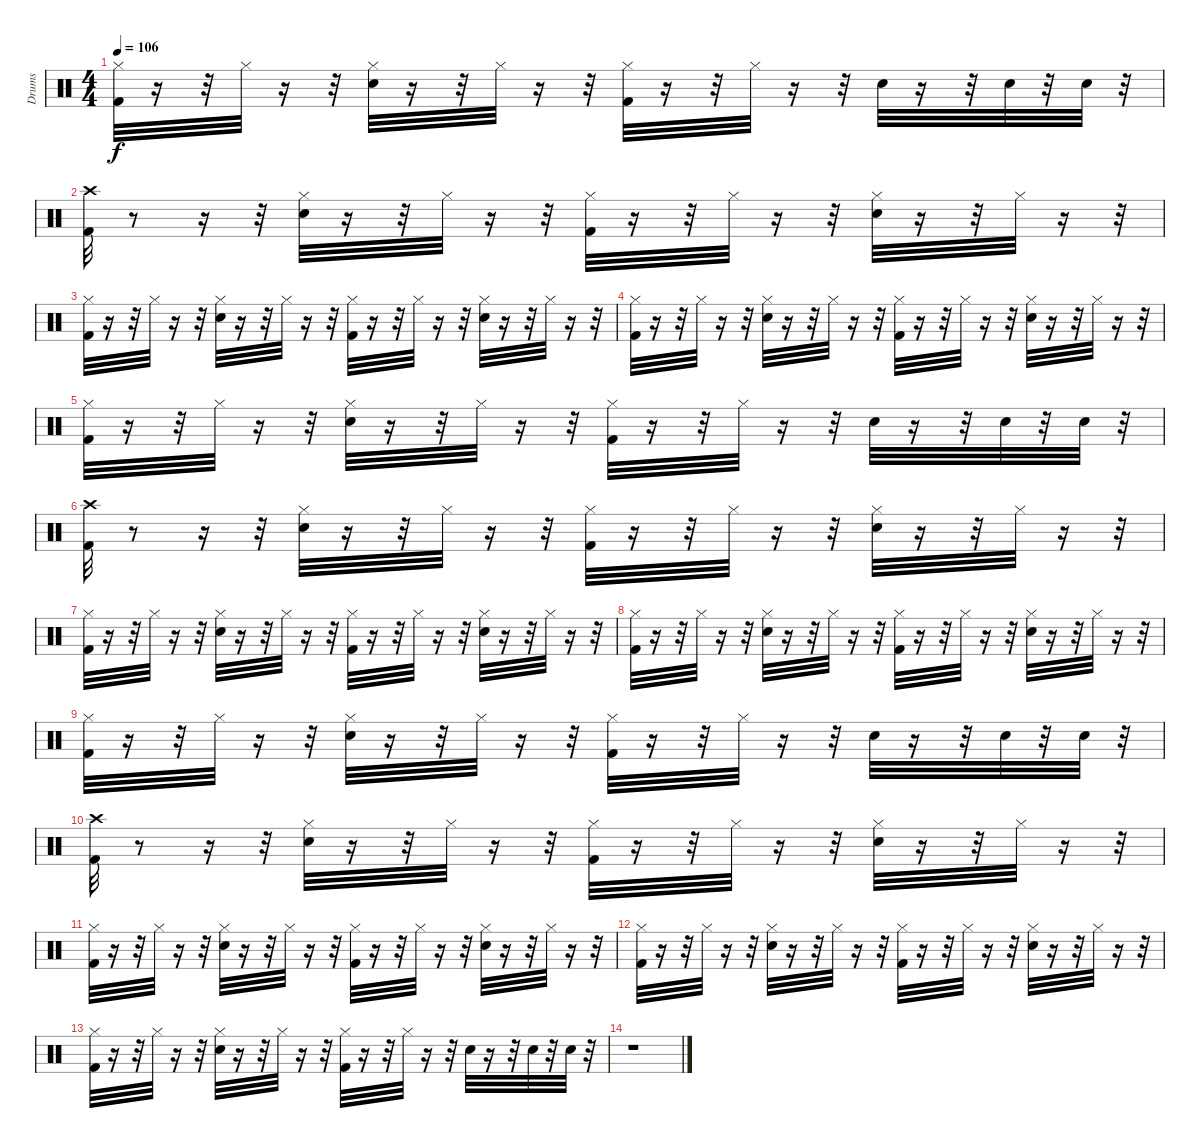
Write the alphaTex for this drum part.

\track ("Drums" "Drums") {instrument percussion}
\staff {score}
\articulation defaults
\ts (4 4)
\tempo 106
\clef neutral
\ks c
("Hi-Hat (closed)" "Kick (hit) 2").32{dy f} r.16 r.32 "Hi-Hat (closed)".32 r.16 r.32 ("Hi-Hat (closed)" "Snare (hit) 2").32 r.16 r.32 "Hi-Hat (closed)".32 r.16 r.32 ("Hi-Hat (closed)" "Kick (hit) 2").32 r.16 r.32 "Hi-Hat (closed)".32 r.16 r.32 "Snare (hit) 2".32 r.16 r.32 "Snare (hit) 2".32 r.32 "Snare (hit) 2".32 r.32 |
("Crash high (hit)" "Kick (hit) 2").32 r.8 r.16 r.32 ("Hi-Hat (closed)" "Snare (hit) 2").32 r.16 r.32 "Hi-Hat (closed)".32 r.16 r.32 ("Hi-Hat (closed)" "Kick (hit) 2").32 r.16 r.32 "Hi-Hat (closed)".32 r.16 r.32 ("Hi-Hat (closed)" "Snare (hit) 2").32 r.16 r.32 "Hi-Hat (closed)".32 r.16 r.32 |
("Hi-Hat (closed)" "Kick (hit) 2").32 r.16 r.32 "Hi-Hat (closed)".32 r.16 r.32 ("Hi-Hat (closed)" "Snare (hit) 2").32 r.16 r.32 "Hi-Hat (closed)".32 r.16 r.32 ("Hi-Hat (closed)" "Kick (hit) 2").32 r.16 r.32 "Hi-Hat (closed)".32 r.16 r.32 ("Hi-Hat (closed)" "Snare (hit) 2").32 r.16 r.32 "Hi-Hat (closed)".32 r.16 r.32 |
("Hi-Hat (closed)" "Kick (hit) 2").32 r.16 r.32 "Hi-Hat (closed)".32 r.16 r.32 ("Hi-Hat (closed)" "Snare (hit) 2").32 r.16 r.32 "Hi-Hat (closed)".32 r.16 r.32 ("Hi-Hat (closed)" "Kick (hit) 2").32 r.16 r.32 "Hi-Hat (closed)".32 r.16 r.32 ("Hi-Hat (closed)" "Snare (hit) 2").32 r.16 r.32 "Hi-Hat (closed)".32 r.16 r.32 |
("Hi-Hat (closed)" "Kick (hit) 2").32 r.16 r.32 "Hi-Hat (closed)".32 r.16 r.32 ("Hi-Hat (closed)" "Snare (hit) 2").32 r.16 r.32 "Hi-Hat (closed)".32 r.16 r.32 ("Hi-Hat (closed)" "Kick (hit) 2").32 r.16 r.32 "Hi-Hat (closed)".32 r.16 r.32 "Snare (hit) 2".32 r.16 r.32 "Snare (hit) 2".32 r.32 "Snare (hit) 2".32 r.32 |
("Crash high (hit)" "Kick (hit) 2").32 r.8 r.16 r.32 ("Hi-Hat (closed)" "Snare (hit) 2").32 r.16 r.32 "Hi-Hat (closed)".32 r.16 r.32 ("Hi-Hat (closed)" "Kick (hit) 2").32 r.16 r.32 "Hi-Hat (closed)".32 r.16 r.32 ("Hi-Hat (closed)" "Snare (hit) 2").32 r.16 r.32 "Hi-Hat (closed)".32 r.16 r.32 |
("Hi-Hat (closed)" "Kick (hit) 2").32 r.16 r.32 "Hi-Hat (closed)".32 r.16 r.32 ("Hi-Hat (closed)" "Snare (hit) 2").32 r.16 r.32 "Hi-Hat (closed)".32 r.16 r.32 ("Hi-Hat (closed)" "Kick (hit) 2").32 r.16 r.32 "Hi-Hat (closed)".32 r.16 r.32 ("Hi-Hat (closed)" "Snare (hit) 2").32 r.16 r.32 "Hi-Hat (closed)".32 r.16 r.32 |
("Hi-Hat (closed)" "Kick (hit) 2").32 r.16 r.32 "Hi-Hat (closed)".32 r.16 r.32 ("Hi-Hat (closed)" "Snare (hit) 2").32 r.16 r.32 "Hi-Hat (closed)".32 r.16 r.32 ("Hi-Hat (closed)" "Kick (hit) 2").32 r.16 r.32 "Hi-Hat (closed)".32 r.16 r.32 ("Hi-Hat (closed)" "Snare (hit) 2").32 r.16 r.32 "Hi-Hat (closed)".32 r.16 r.32 |
("Hi-Hat (closed)" "Kick (hit) 2").32 r.16 r.32 "Hi-Hat (closed)".32 r.16 r.32 ("Hi-Hat (closed)" "Snare (hit) 2").32 r.16 r.32 "Hi-Hat (closed)".32 r.16 r.32 ("Hi-Hat (closed)" "Kick (hit) 2").32 r.16 r.32 "Hi-Hat (closed)".32 r.16 r.32 "Snare (hit) 2".32 r.16 r.32 "Snare (hit) 2".32 r.32 "Snare (hit) 2".32 r.32 |
("Crash high (hit)" "Kick (hit) 2").32 r.8 r.16 r.32 ("Hi-Hat (closed)" "Snare (hit) 2").32 r.16 r.32 "Hi-Hat (closed)".32 r.16 r.32 ("Hi-Hat (closed)" "Kick (hit) 2").32 r.16 r.32 "Hi-Hat (closed)".32 r.16 r.32 ("Hi-Hat (closed)" "Snare (hit) 2").32 r.16 r.32 "Hi-Hat (closed)".32 r.16 r.32 |
("Hi-Hat (closed)" "Kick (hit) 2").32 r.16 r.32 "Hi-Hat (closed)".32 r.16 r.32 ("Hi-Hat (closed)" "Snare (hit) 2").32 r.16 r.32 "Hi-Hat (closed)".32 r.16 r.32 ("Hi-Hat (closed)" "Kick (hit) 2").32 r.16 r.32 "Hi-Hat (closed)".32 r.16 r.32 ("Hi-Hat (closed)" "Snare (hit) 2").32 r.16 r.32 "Hi-Hat (closed)".32 r.16 r.32 |
("Hi-Hat (closed)" "Kick (hit) 2").32 r.16 r.32 "Hi-Hat (closed)".32 r.16 r.32 ("Hi-Hat (closed)" "Snare (hit) 2").32 r.16 r.32 "Hi-Hat (closed)".32 r.16 r.32 ("Hi-Hat (closed)" "Kick (hit) 2").32 r.16 r.32 "Hi-Hat (closed)".32 r.16 r.32 ("Hi-Hat (closed)" "Snare (hit) 2").32 r.16 r.32 "Hi-Hat (closed)".32 r.16 r.32 |
("Hi-Hat (closed)" "Kick (hit) 2").32 r.16 r.32 "Hi-Hat (closed)".32 r.16 r.32 ("Hi-Hat (closed)" "Snare (hit) 2").32 r.16 r.32 "Hi-Hat (closed)".32 r.16 r.32 ("Hi-Hat (closed)" "Kick (hit) 2").32 r.16 r.32 "Hi-Hat (closed)".32 r.16 r.32 "Snare (hit) 2".32 r.16 r.32 "Snare (hit) 2".32 r.32 "Snare (hit) 2".32 r.32 |
r.1
